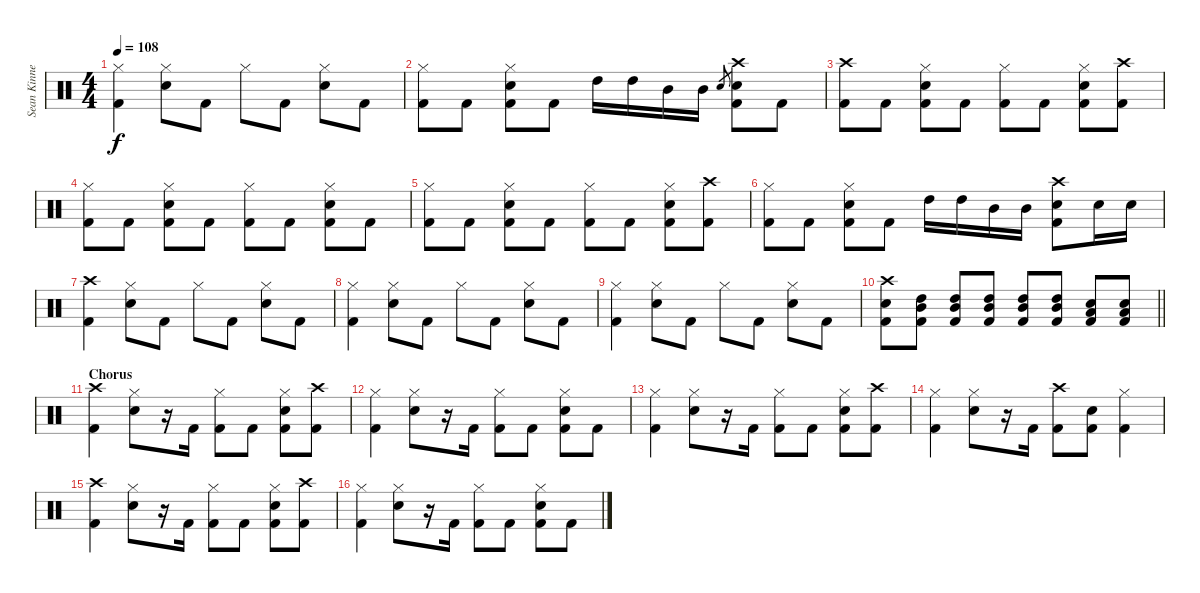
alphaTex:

\track ("Sean Kinney- Drums" "Sean Kinne") {instrument percussion}
\staff {score}
\articulation defaults
\ts (4 4)
\tempo 108
\clef neutral
\ks c
("Hi-Hat (closed)" "Kick (hit) 2").4{dy f} ("Hi-Hat (closed)" "Electric Snare (hit)").8 "Kick (hit) 2".8 "Hi-Hat (closed)".8 "Kick (hit) 2".8 ("Hi-Hat (closed)" "Electric Snare (hit)").8 "Kick (hit) 2".8 |
("Hi-Hat (closed)" "Kick (hit) 2").8 "Kick (hit) 2".8 ("Hi-Hat (closed)" "Electric Snare (hit)" "Kick (hit) 2").8 "Kick (hit) 2".8 "High Tom (hit)".16 "High Tom (hit)".16 "Mid Tom (hit)".16 "Mid Tom (hit)".16 "Electric Snare (hit)".8{gr} ("Crash high (hit)" "Electric Snare (hit)" "Kick (hit) 2").8 "Kick (hit) 2".8 |
("Crash high (hit)" "Kick (hit) 2").8 "Kick (hit) 2".8 ("Hi-Hat (closed)" "Electric Snare (hit)" "Kick (hit) 2").8 "Kick (hit) 2".8 ("Hi-Hat (closed)" "Kick (hit) 2").8 "Kick (hit) 2".8 ("Hi-Hat (closed)" "Electric Snare (hit)" "Kick (hit) 2").8 ("Crash high (hit)" "Kick (hit) 2").8 |
("Hi-Hat (closed)" "Kick (hit) 2").8 "Kick (hit) 2".8 ("Hi-Hat (closed)" "Electric Snare (hit)" "Kick (hit) 2").8 "Kick (hit) 2".8 ("Hi-Hat (closed)" "Kick (hit) 2").8 "Kick (hit) 2".8 ("Hi-Hat (closed)" "Electric Snare (hit)" "Kick (hit) 2").8 "Kick (hit) 2".8 |
("Hi-Hat (closed)" "Kick (hit) 2").8 "Kick (hit) 2".8 ("Hi-Hat (closed)" "Electric Snare (hit)" "Kick (hit) 2").8 "Kick (hit) 2".8 ("Hi-Hat (closed)" "Kick (hit) 2").8 "Kick (hit) 2".8 ("Hi-Hat (closed)" "Electric Snare (hit)" "Kick (hit) 2").8 ("Crash high (hit)" "Kick (hit) 2").8 |
("Hi-Hat (closed)" "Kick (hit) 2").8 "Kick (hit) 2".8 ("Hi-Hat (closed)" "Electric Snare (hit)" "Kick (hit) 2").8 "Kick (hit) 2".8 "High Tom (hit)".16 "High Tom (hit)".16 "Mid Tom (hit)".16 "Mid Tom (hit)".16 ("Crash high (hit)" "Electric Snare (hit)" "Kick (hit) 2").8 "Electric Snare (hit)".16 "Electric Snare (hit)".16 |
("Crash high (hit)" "Kick (hit) 2").4 ("Hi-Hat (closed)" "Electric Snare (hit)").8 "Kick (hit) 2".8 "Hi-Hat (closed)".8 "Kick (hit) 2".8 ("Hi-Hat (closed)" "Electric Snare (hit)").8 "Kick (hit) 2".8 |
("Hi-Hat (closed)" "Kick (hit) 2").4 ("Hi-Hat (closed)" "Electric Snare (hit)").8 "Kick (hit) 2".8 "Hi-Hat (closed)".8 "Kick (hit) 2".8 ("Hi-Hat (closed)" "Electric Snare (hit)").8 "Kick (hit) 2".8 |
("Hi-Hat (closed)" "Kick (hit) 2").4 ("Hi-Hat (closed)" "Electric Snare (hit)").8 "Kick (hit) 2".8 "Hi-Hat (closed)".8 "Kick (hit) 2".8 ("Hi-Hat (closed)" "Electric Snare (hit)").8 "Kick (hit) 2".8 |
\barLineRight lightlight
("Crash high (hit)" "Electric Snare (hit)" "Kick (hit) 2").8 ("Mid Tom (hit)" "High Tom (hit)" "Kick (hit) 2").8 ("Mid Tom (hit)" "High Tom (hit)" "Kick (hit) 2").8 ("Mid Tom (hit)" "High Tom (hit)" "Kick (hit) 2").8 ("Mid Tom (hit)" "High Tom (hit)" "Kick (hit) 2").8 ("Mid Tom (hit)" "High Tom (hit)" "Kick (hit) 2").8 ("Electric Snare (hit)" "Low Tom (hit)" "Kick (hit) 2").8 ("Electric Snare (hit)" "Low Tom (hit)" "Kick (hit) 2").8 |
\section ("" "Chorus")
("Crash high (hit)" "Kick (hit) 2").4 ("Hi-Hat (closed)" "Electric Snare (hit)").8 r.16 "Kick (hit) 2".16 ("Hi-Hat (closed)" "Kick (hit) 2").8 "Kick (hit) 2".8 ("Hi-Hat (closed)" "Electric Snare (hit)" "Kick (hit) 2").8 ("Crash high (hit)" "Kick (hit) 2").8 |
("Hi-Hat (closed)" "Kick (hit) 2").4 ("Hi-Hat (closed)" "Electric Snare (hit)").8 r.16 "Kick (hit) 2".16 ("Hi-Hat (closed)" "Kick (hit) 2").8 "Kick (hit) 2".8 ("Hi-Hat (closed)" "Electric Snare (hit)" "Kick (hit) 2").8 "Kick (hit) 2".8 |
("Hi-Hat (closed)" "Kick (hit) 2").4 ("Hi-Hat (closed)" "Electric Snare (hit)").8 r.16 "Kick (hit) 2".16 ("Hi-Hat (closed)" "Kick (hit) 2").8 "Kick (hit) 2".8 ("Hi-Hat (closed)" "Electric Snare (hit)" "Kick (hit) 2").8 ("Crash high (hit)" "Kick (hit) 2").8 |
("Hi-Hat (closed)" "Kick (hit) 2").4 ("Hi-Hat (closed)" "Electric Snare (hit)").8 r.16 "Kick (hit) 2".16 ("Crash high (hit)" "Kick (hit) 2").8 ("Electric Snare (hit)" "Kick (hit) 2").8 ("Hi-Hat (closed)" "Kick (hit) 2").4 |
("Crash high (hit)" "Kick (hit) 2").4 ("Hi-Hat (closed)" "Electric Snare (hit)").8 r.16 "Kick (hit) 2".16 ("Hi-Hat (closed)" "Kick (hit) 2").8 "Kick (hit) 2".8 ("Hi-Hat (closed)" "Electric Snare (hit)" "Kick (hit) 2").8 ("Crash high (hit)" "Kick (hit) 2").8 |
("Hi-Hat (closed)" "Kick (hit) 2").4 ("Hi-Hat (closed)" "Electric Snare (hit)").8 r.16 "Kick (hit) 2".16 ("Hi-Hat (closed)" "Kick (hit) 2").8 "Kick (hit) 2".8 ("Hi-Hat (closed)" "Electric Snare (hit)" "Kick (hit) 2").8 "Kick (hit) 2".8
